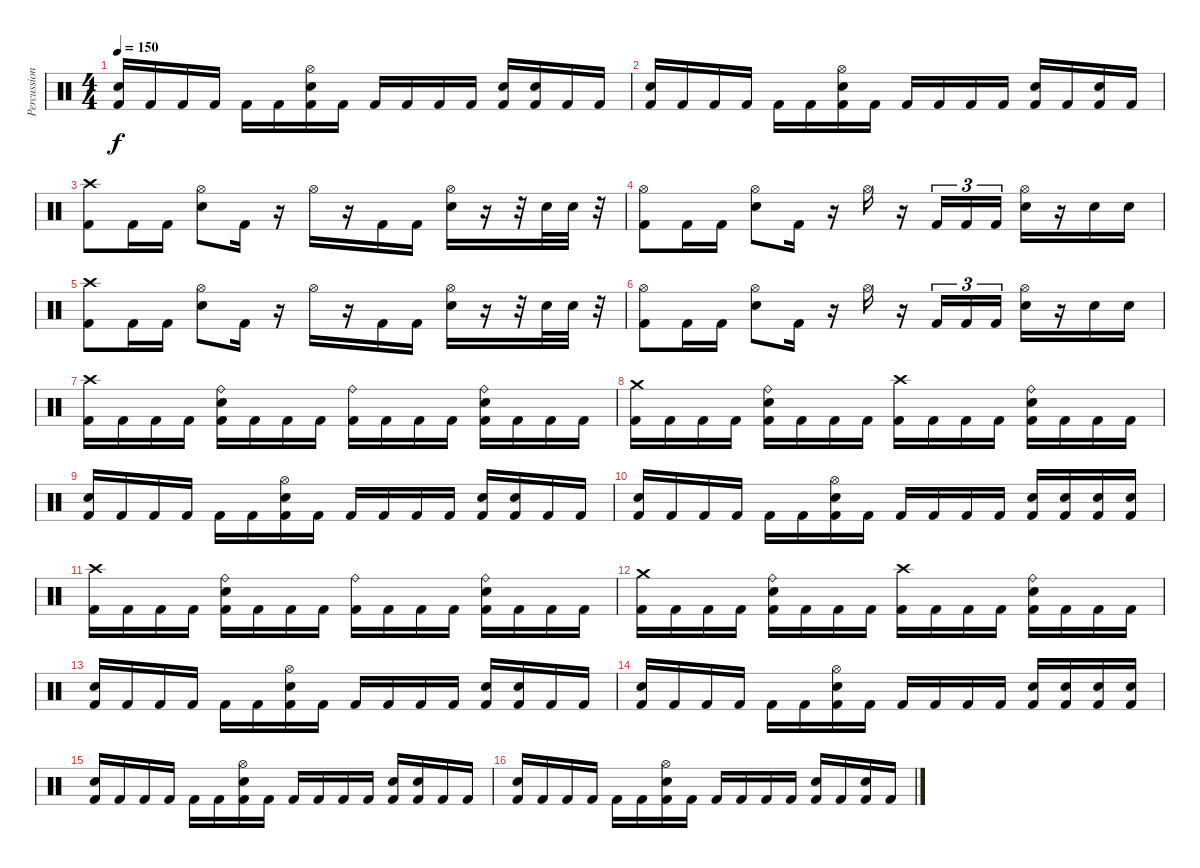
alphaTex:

\track ("Percussion" "Percussion") {instrument percussion}
\staff {score}
\articulation defaults
\ts (4 4)
\tempo 150
\clef neutral
\ks c
("Snare (hit) 2" "Kick (hit) 2").16{dy f} "Kick (hit) 2".16 "Kick (hit) 2".16 "Kick (hit) 2".16 "Kick (hit) 2".16 "Kick (hit) 2".16 ("Hi-Hat (open)" "Snare (hit) 2" "Kick (hit) 2").16 "Kick (hit) 2".16 "Kick (hit) 2".16 "Kick (hit) 2".16 "Kick (hit) 2".16 "Kick (hit) 2".16 ("Snare (hit) 2" "Kick (hit) 2").16 ("Snare (hit) 2" "Kick (hit) 2").16 "Kick (hit) 2".16 "Kick (hit) 2".16 |
("Snare (hit) 2" "Kick (hit) 2").16 "Kick (hit) 2".16 "Kick (hit) 2".16 "Kick (hit) 2".16 "Kick (hit) 2".16 "Kick (hit) 2".16 ("Hi-Hat (open)" "Snare (hit) 2" "Kick (hit) 2").16 "Kick (hit) 2".16 "Kick (hit) 2".16 "Kick (hit) 2".16 "Kick (hit) 2".16 "Kick (hit) 2".16 ("Snare (hit) 2" "Kick (hit) 2").16 "Kick (hit) 2".16 ("Snare (hit) 2" "Kick (hit) 2").16 "Kick (hit) 2".16 |
("Crash high (hit)" "Kick (hit) 2").8 "Kick (hit) 2".16 "Kick (hit) 2".16 ("Hi-Hat (open)" "Snare (hit) 2").8 "Kick (hit) 2".16 r.16 "Hi-Hat (open)".16 r.16 "Kick (hit) 2".16 "Kick (hit) 2".16 ("Hi-Hat (open)" "Snare (hit) 2").16 r.16 r.32 "Snare (hit) 2".32 "Snare (hit) 2".32 r.32 |
("Hi-Hat (open)" "Kick (hit) 2").8 "Kick (hit) 2".16 "Kick (hit) 2".16 ("Hi-Hat (open)" "Snare (hit) 2").8 "Kick (hit) 2".16 r.16 "Hi-Hat (open)".16 r.16 "Kick (hit) 2".16{tu (3 2)} "Kick (hit) 2".16{tu (3 2)} "Kick (hit) 2".16{tu (3 2)} ("Hi-Hat (open)" "Snare (hit) 2").16 r.16 "Snare (hit) 2".16 "Snare (hit) 2".16 |
("Crash high (hit)" "Kick (hit) 2").8 "Kick (hit) 2".16 "Kick (hit) 2".16 ("Hi-Hat (open)" "Snare (hit) 2").8 "Kick (hit) 2".16 r.16 "Hi-Hat (open)".16 r.16 "Kick (hit) 2".16 "Kick (hit) 2".16 ("Hi-Hat (open)" "Snare (hit) 2").16 r.16 r.32 "Snare (hit) 2".32 "Snare (hit) 2".32 r.32 |
("Hi-Hat (open)" "Kick (hit) 2").8 "Kick (hit) 2".16 "Kick (hit) 2".16 ("Hi-Hat (open)" "Snare (hit) 2").8 "Kick (hit) 2".16 r.16 "Hi-Hat (open)".16 r.16 "Kick (hit) 2".16{tu (3 2)} "Kick (hit) 2".16{tu (3 2)} "Kick (hit) 2".16{tu (3 2)} ("Hi-Hat (open)" "Snare (hit) 2").16 r.16 "Snare (hit) 2".16 "Snare (hit) 2".16 |
("Crash high (hit)" "Kick (hit) 2").16 "Kick (hit) 2".16 "Kick (hit) 2".16 "Kick (hit) 2".16 ("Ride (bell)" "Snare (hit) 2" "Kick (hit) 2").16 "Kick (hit) 2".16 "Kick (hit) 2".16 "Kick (hit) 2".16 ("Ride (bell)" "Kick (hit) 2").16 "Kick (hit) 2".16 "Kick (hit) 2".16 "Kick (hit) 2".16 ("Ride (bell)" "Snare (hit) 2" "Kick (hit) 2").16 "Kick (hit) 2".16 "Kick (hit) 2".16 "Kick (hit) 2".16 |
("Crash medium (hit)" "Kick (hit) 2").16 "Kick (hit) 2".16 "Kick (hit) 2".16 "Kick (hit) 2".16 ("Ride (bell)" "Snare (hit) 2" "Kick (hit) 2").16 "Kick (hit) 2".16 "Kick (hit) 2".16 "Kick (hit) 2".16 ("Crash high (hit)" "Kick (hit) 2").16 "Kick (hit) 2".16 "Kick (hit) 2".16 "Kick (hit) 2".16 ("Ride (bell)" "Snare (hit) 2" "Kick (hit) 2").16 "Kick (hit) 2".16 "Kick (hit) 2".16 "Kick (hit) 2".16 |
("Snare (hit) 2" "Kick (hit) 2").16 "Kick (hit) 2".16 "Kick (hit) 2".16 "Kick (hit) 2".16 "Kick (hit) 2".16 "Kick (hit) 2".16 ("Hi-Hat (open)" "Snare (hit) 2" "Kick (hit) 2").16 "Kick (hit) 2".16 "Kick (hit) 2".16 "Kick (hit) 2".16 "Kick (hit) 2".16 "Kick (hit) 2".16 ("Snare (hit) 2" "Kick (hit) 2").16 ("Snare (hit) 2" "Kick (hit) 2").16 "Kick (hit) 2".16 "Kick (hit) 2".16 |
("Snare (hit) 2" "Kick (hit) 2").16 "Kick (hit) 2".16 "Kick (hit) 2".16 "Kick (hit) 2".16 "Kick (hit) 2".16 "Kick (hit) 2".16 ("Hi-Hat (open)" "Snare (hit) 2" "Kick (hit) 2").16 "Kick (hit) 2".16 "Kick (hit) 2".16 "Kick (hit) 2".16 "Kick (hit) 2".16 "Kick (hit) 2".16 ("Snare (hit) 2" "Kick (hit) 2").16 ("Snare (hit) 2" "Kick (hit) 2").16 ("Snare (hit) 2" "Kick (hit) 2").16 ("Snare (hit) 2" "Kick (hit) 2").16 |
("Crash high (hit)" "Kick (hit) 2").16 "Kick (hit) 2".16 "Kick (hit) 2".16 "Kick (hit) 2".16 ("Ride (bell)" "Snare (hit) 2" "Kick (hit) 2").16 "Kick (hit) 2".16 "Kick (hit) 2".16 "Kick (hit) 2".16 ("Ride (bell)" "Kick (hit) 2").16 "Kick (hit) 2".16 "Kick (hit) 2".16 "Kick (hit) 2".16 ("Ride (bell)" "Snare (hit) 2" "Kick (hit) 2").16 "Kick (hit) 2".16 "Kick (hit) 2".16 "Kick (hit) 2".16 |
("Crash medium (hit)" "Kick (hit) 2").16 "Kick (hit) 2".16 "Kick (hit) 2".16 "Kick (hit) 2".16 ("Ride (bell)" "Snare (hit) 2" "Kick (hit) 2").16 "Kick (hit) 2".16 "Kick (hit) 2".16 "Kick (hit) 2".16 ("Crash high (hit)" "Kick (hit) 2").16 "Kick (hit) 2".16 "Kick (hit) 2".16 "Kick (hit) 2".16 ("Ride (bell)" "Snare (hit) 2" "Kick (hit) 2").16 "Kick (hit) 2".16 "Kick (hit) 2".16 "Kick (hit) 2".16 |
("Snare (hit) 2" "Kick (hit) 2").16 "Kick (hit) 2".16 "Kick (hit) 2".16 "Kick (hit) 2".16 "Kick (hit) 2".16 "Kick (hit) 2".16 ("Hi-Hat (open)" "Snare (hit) 2" "Kick (hit) 2").16 "Kick (hit) 2".16 "Kick (hit) 2".16 "Kick (hit) 2".16 "Kick (hit) 2".16 "Kick (hit) 2".16 ("Snare (hit) 2" "Kick (hit) 2").16 ("Snare (hit) 2" "Kick (hit) 2").16 "Kick (hit) 2".16 "Kick (hit) 2".16 |
("Snare (hit) 2" "Kick (hit) 2").16 "Kick (hit) 2".16 "Kick (hit) 2".16 "Kick (hit) 2".16 "Kick (hit) 2".16 "Kick (hit) 2".16 ("Hi-Hat (open)" "Snare (hit) 2" "Kick (hit) 2").16 "Kick (hit) 2".16 "Kick (hit) 2".16 "Kick (hit) 2".16 "Kick (hit) 2".16 "Kick (hit) 2".16 ("Snare (hit) 2" "Kick (hit) 2").16 ("Snare (hit) 2" "Kick (hit) 2").16 ("Snare (hit) 2" "Kick (hit) 2").16 ("Snare (hit) 2" "Kick (hit) 2").16 |
("Snare (hit) 2" "Kick (hit) 2").16 "Kick (hit) 2".16 "Kick (hit) 2".16 "Kick (hit) 2".16 "Kick (hit) 2".16 "Kick (hit) 2".16 ("Hi-Hat (open)" "Snare (hit) 2" "Kick (hit) 2").16 "Kick (hit) 2".16 "Kick (hit) 2".16 "Kick (hit) 2".16 "Kick (hit) 2".16 "Kick (hit) 2".16 ("Snare (hit) 2" "Kick (hit) 2").16 ("Snare (hit) 2" "Kick (hit) 2").16 "Kick (hit) 2".16 "Kick (hit) 2".16 |
("Snare (hit) 2" "Kick (hit) 2").16 "Kick (hit) 2".16 "Kick (hit) 2".16 "Kick (hit) 2".16 "Kick (hit) 2".16 "Kick (hit) 2".16 ("Hi-Hat (open)" "Snare (hit) 2" "Kick (hit) 2").16 "Kick (hit) 2".16 "Kick (hit) 2".16 "Kick (hit) 2".16 "Kick (hit) 2".16 "Kick (hit) 2".16 ("Snare (hit) 2" "Kick (hit) 2").16 "Kick (hit) 2".16 ("Snare (hit) 2" "Kick (hit) 2").16 "Kick (hit) 2".16
